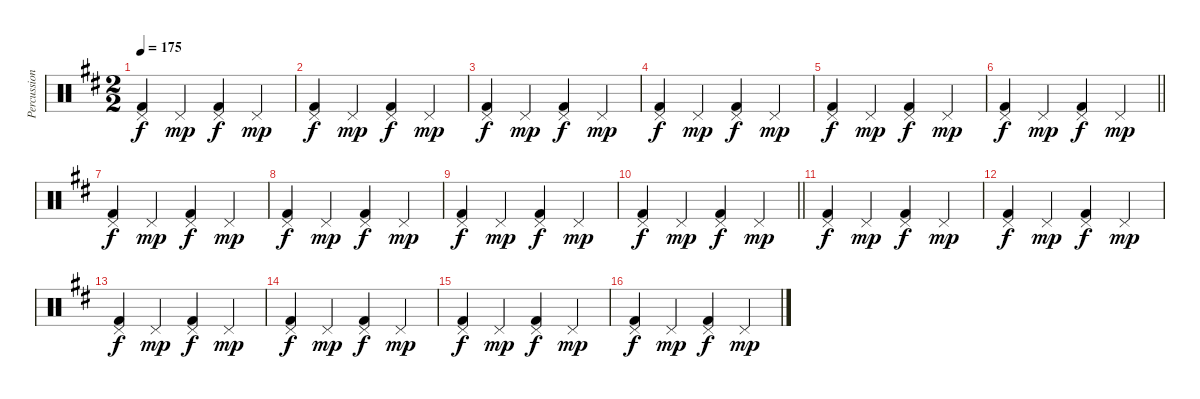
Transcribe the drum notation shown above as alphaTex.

\track ("Percussion" "Percussion") {instrument percussion}
\staff {score}
\articulation defaults
\ts (2 2)
\tempo 175
\clef neutral
\ks d
("Pedal Hi-Hat (hit)" "Kick (hit) 2").4{dy f} "Pedal Hi-Hat (hit)".4{dy mp} ("Pedal Hi-Hat (hit)" "Kick (hit) 2").4{dy f} "Pedal Hi-Hat (hit)".4{dy mp} |
("Pedal Hi-Hat (hit)" "Kick (hit) 2").4{dy f} "Pedal Hi-Hat (hit)".4{dy mp} ("Pedal Hi-Hat (hit)" "Kick (hit) 2").4{dy f} "Pedal Hi-Hat (hit)".4{dy mp} |
("Pedal Hi-Hat (hit)" "Kick (hit) 2").4{dy f} "Pedal Hi-Hat (hit)".4{dy mp} ("Pedal Hi-Hat (hit)" "Kick (hit) 2").4{dy f} "Pedal Hi-Hat (hit)".4{dy mp} |
("Pedal Hi-Hat (hit)" "Kick (hit) 2").4{dy f} "Pedal Hi-Hat (hit)".4{dy mp} ("Pedal Hi-Hat (hit)" "Kick (hit) 2").4{dy f} "Pedal Hi-Hat (hit)".4{dy mp} |
("Pedal Hi-Hat (hit)" "Kick (hit) 2").4{dy f} "Pedal Hi-Hat (hit)".4{dy mp} ("Pedal Hi-Hat (hit)" "Kick (hit) 2").4{dy f} "Pedal Hi-Hat (hit)".4{dy mp} |
\barLineRight lightlight
("Pedal Hi-Hat (hit)" "Kick (hit) 2").4{dy f} "Pedal Hi-Hat (hit)".4{dy mp} ("Pedal Hi-Hat (hit)" "Kick (hit) 2").4{dy f} "Pedal Hi-Hat (hit)".4{dy mp} |
("Pedal Hi-Hat (hit)" "Kick (hit) 2").4{dy f} "Pedal Hi-Hat (hit)".4{dy mp} ("Pedal Hi-Hat (hit)" "Kick (hit) 2").4{dy f} "Pedal Hi-Hat (hit)".4{dy mp} |
("Pedal Hi-Hat (hit)" "Kick (hit) 2").4{dy f} "Pedal Hi-Hat (hit)".4{dy mp} ("Pedal Hi-Hat (hit)" "Kick (hit) 2").4{dy f} "Pedal Hi-Hat (hit)".4{dy mp} |
("Pedal Hi-Hat (hit)" "Kick (hit) 2").4{dy f} "Pedal Hi-Hat (hit)".4{dy mp} ("Pedal Hi-Hat (hit)" "Kick (hit) 2").4{dy f} "Pedal Hi-Hat (hit)".4{dy mp} |
\barLineRight lightlight
("Pedal Hi-Hat (hit)" "Kick (hit) 2").4{dy f} "Pedal Hi-Hat (hit)".4{dy mp} ("Pedal Hi-Hat (hit)" "Kick (hit) 2").4{dy f} "Pedal Hi-Hat (hit)".4{dy mp} |
("Pedal Hi-Hat (hit)" "Kick (hit) 2").4{dy f} "Pedal Hi-Hat (hit)".4{dy mp} ("Pedal Hi-Hat (hit)" "Kick (hit) 2").4{dy f} "Pedal Hi-Hat (hit)".4{dy mp} |
("Pedal Hi-Hat (hit)" "Kick (hit) 2").4{dy f} "Pedal Hi-Hat (hit)".4{dy mp} ("Pedal Hi-Hat (hit)" "Kick (hit) 2").4{dy f} "Pedal Hi-Hat (hit)".4{dy mp} |
("Pedal Hi-Hat (hit)" "Kick (hit) 2").4{dy f} "Pedal Hi-Hat (hit)".4{dy mp} ("Pedal Hi-Hat (hit)" "Kick (hit) 2").4{dy f} "Pedal Hi-Hat (hit)".4{dy mp} |
("Pedal Hi-Hat (hit)" "Kick (hit) 2").4{dy f} "Pedal Hi-Hat (hit)".4{dy mp} ("Pedal Hi-Hat (hit)" "Kick (hit) 2").4{dy f} "Pedal Hi-Hat (hit)".4{dy mp} |
("Pedal Hi-Hat (hit)" "Kick (hit) 2").4{dy f} "Pedal Hi-Hat (hit)".4{dy mp} ("Pedal Hi-Hat (hit)" "Kick (hit) 2").4{dy f} "Pedal Hi-Hat (hit)".4{dy mp} |
("Pedal Hi-Hat (hit)" "Kick (hit) 2").4{dy f} "Pedal Hi-Hat (hit)".4{dy mp} ("Pedal Hi-Hat (hit)" "Kick (hit) 2").4{dy f} "Pedal Hi-Hat (hit)".4{dy mp}
